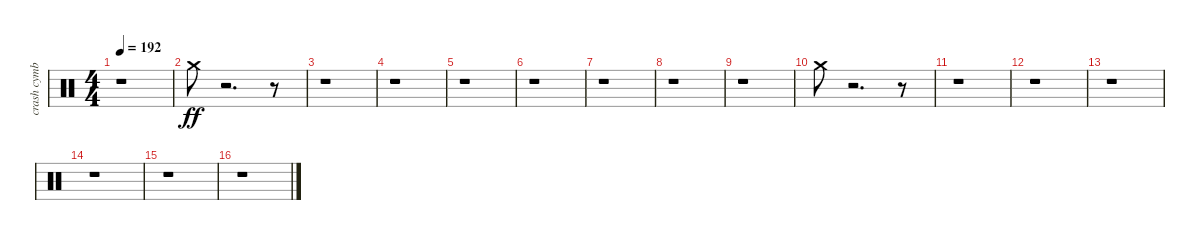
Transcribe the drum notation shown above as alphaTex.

\track ("crash cymbal" "crash cymb") {instrument percussion}
\staff {score}
\articulation defaults
\ts (4 4)
\tempo 192
\clef neutral
\ks c
r.1{dy fff} |
"Crash medium (hit)".8{dy ff} r.2{d} r.8 |
r.1 |
r.1 |
r.1 |
r.1 |
r.1 |
r.1 |
r.1 |
"Crash medium (hit)".8 r.2{d} r.8 |
r.1 |
r.1 |
r.1 |
r.1 |
r.1 |
r.1
